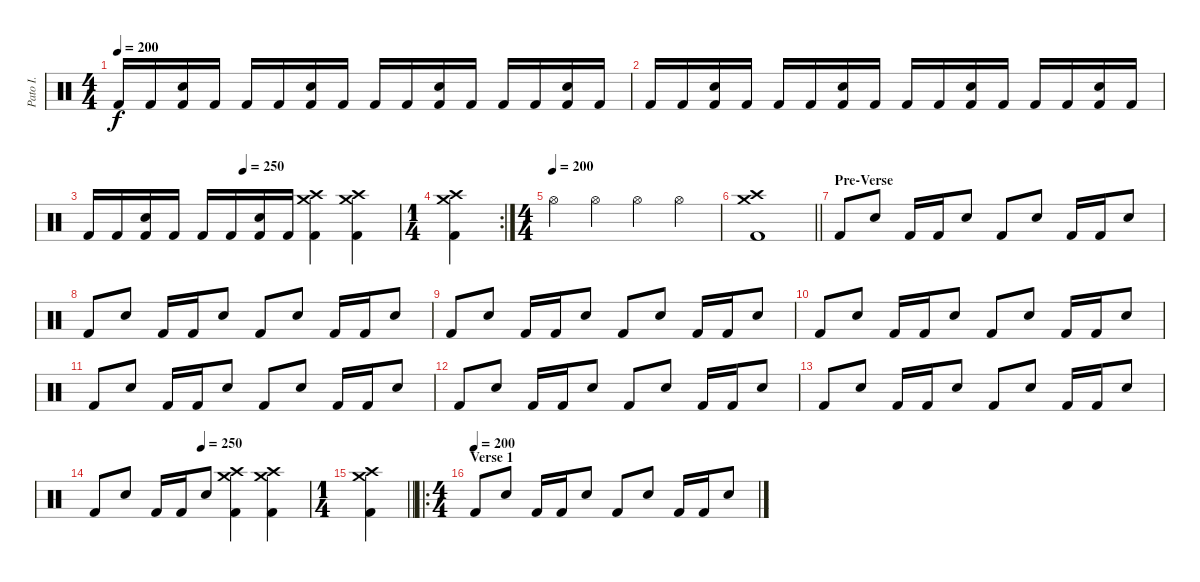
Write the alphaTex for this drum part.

\track ("Pato I." "Pato I.") {instrument percussion}
\staff {score}
\articulation defaults
\ts (4 4)
\tempo 200
\clef neutral
\ks c "Kick (hit) 2".16{dy f} "Kick (hit) 2".16
("Snare (hit) 2" "Kick (hit) 2").16 "Kick (hit) 2".16 "Kick (hit) 2".16 "Kick (hit) 2".16 ("Snare (hit) 2" "Kick (hit) 2").16 "Kick (hit) 2".16 "Kick (hit) 2".16 "Kick (hit) 2".16 ("Snare (hit) 2" "Kick (hit) 2").16 "Kick (hit) 2".16 "Kick (hit) 2".16 "Kick (hit) 2".16 ("Snare (hit) 2" "Kick (hit) 2").16 "Kick (hit) 2".16 |
"Kick (hit) 2".16 "Kick (hit) 2".16 ("Snare (hit) 2" "Kick (hit) 2").16 "Kick (hit) 2".16 "Kick (hit) 2".16 "Kick (hit) 2".16 ("Snare (hit) 2" "Kick (hit) 2").16 "Kick (hit) 2".16 "Kick (hit) 2".16 "Kick (hit) 2".16 ("Snare (hit) 2" "Kick (hit) 2").16 "Kick (hit) 2".16 "Kick (hit) 2".16 "Kick (hit) 2".16 ("Snare (hit) 2" "Kick (hit) 2").16 "Kick (hit) 2".16 |
\tempo (250 0.5)
"Kick (hit) 2".16 "Kick (hit) 2".16 ("Snare (hit) 2" "Kick (hit) 2").16 "Kick (hit) 2".16 "Kick (hit) 2".16 "Kick (hit) 2".16 ("Snare (hit) 2" "Kick (hit) 2").16 "Kick (hit) 2".16 ("Crash high (hit)" "Crash medium (hit)" "Kick (hit) 2").4 ("Crash high (hit)" "Crash medium (hit)" "Kick (hit) 2").4 |
\rc 2
\ts (1 4)
("Crash high (hit)" "Crash medium (hit)" "Kick (hit) 2").4 |
\ts (4 4)
\tempo (200)
"Hi-Hat (open)".4 "Hi-Hat (open)".4 "Hi-Hat (open)".4 "Hi-Hat (open)".4 |
\barLineRight lightlight
("Crash high (hit)" "Crash medium (hit)" "Kick (hit) 2").1 |
\section ("" "Pre-Verse")
"Kick (hit) 2".8 "Snare (hit) 2".8 "Kick (hit) 2".16 "Kick (hit) 2".16 "Snare (hit) 2".8 "Kick (hit) 2".8 "Snare (hit) 2".8 "Kick (hit) 2".16 "Kick (hit) 2".16 "Snare (hit) 2".8 |
"Kick (hit) 2".8 "Snare (hit) 2".8 "Kick (hit) 2".16 "Kick (hit) 2".16 "Snare (hit) 2".8 "Kick (hit) 2".8 "Snare (hit) 2".8 "Kick (hit) 2".16 "Kick (hit) 2".16 "Snare (hit) 2".8 |
"Kick (hit) 2".8 "Snare (hit) 2".8 "Kick (hit) 2".16 "Kick (hit) 2".16 "Snare (hit) 2".8 "Kick (hit) 2".8 "Snare (hit) 2".8 "Kick (hit) 2".16 "Kick (hit) 2".16 "Snare (hit) 2".8 |
"Kick (hit) 2".8 "Snare (hit) 2".8 "Kick (hit) 2".16 "Kick (hit) 2".16 "Snare (hit) 2".8 "Kick (hit) 2".8 "Snare (hit) 2".8 "Kick (hit) 2".16 "Kick (hit) 2".16 "Snare (hit) 2".8 |
"Kick (hit) 2".8 "Snare (hit) 2".8 "Kick (hit) 2".16 "Kick (hit) 2".16 "Snare (hit) 2".8 "Kick (hit) 2".8 "Snare (hit) 2".8 "Kick (hit) 2".16 "Kick (hit) 2".16 "Snare (hit) 2".8 |
"Kick (hit) 2".8 "Snare (hit) 2".8 "Kick (hit) 2".16 "Kick (hit) 2".16 "Snare (hit) 2".8 "Kick (hit) 2".8 "Snare (hit) 2".8 "Kick (hit) 2".16 "Kick (hit) 2".16 "Snare (hit) 2".8 |
"Kick (hit) 2".8 "Snare (hit) 2".8 "Kick (hit) 2".16 "Kick (hit) 2".16 "Snare (hit) 2".8 "Kick (hit) 2".8 "Snare (hit) 2".8 "Kick (hit) 2".16 "Kick (hit) 2".16 "Snare (hit) 2".8 |
\tempo (250 0.5)
"Kick (hit) 2".8 "Snare (hit) 2".8 "Kick (hit) 2".16 "Kick (hit) 2".16 "Snare (hit) 2".8 ("Crash high (hit)" "Crash medium (hit)" "Kick (hit) 2").4 ("Crash high (hit)" "Crash medium (hit)" "Kick (hit) 2").4 |
\ts (1 4)
\barLineRight lightlight
("Crash high (hit)" "Crash medium (hit)" "Kick (hit) 2").4 |
\ro
\ts (4 4)
\section ("" "Verse 1")
\tempo (200)
"Kick (hit) 2".8 "Snare (hit) 2".8 "Kick (hit) 2".16 "Kick (hit) 2".16 "Snare (hit) 2".8 "Kick (hit) 2".8 "Snare (hit) 2".8 "Kick (hit) 2".16 "Kick (hit) 2".16 "Snare (hit) 2".8
